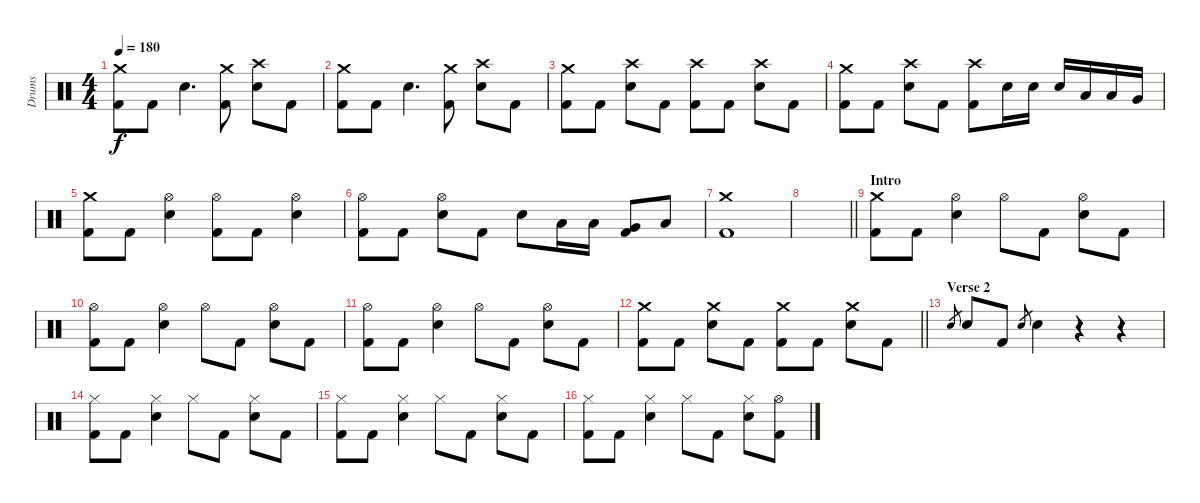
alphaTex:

\track ("Drums" "Drums") {instrument percussion}
\staff {score}
\articulation defaults
\ts (4 4)
\tempo 180
\clef neutral
\ks c
("Crash medium (hit)" "Kick (hit) 2").8{dy f} "Kick (hit) 2".8 "Electric Snare (hit)".4{d} ("Crash medium (hit)" "Kick (hit) 2").8 ("Crash high (hit)" "Electric Snare (hit)").8 "Kick (hit) 2".8 |
("Crash medium (hit)" "Kick (hit) 2").8 "Kick (hit) 2".8 "Electric Snare (hit)".4{d} ("Crash medium (hit)" "Kick (hit) 2").8 ("Crash high (hit)" "Electric Snare (hit)").8 "Kick (hit) 2".8 |
("Crash medium (hit)" "Kick (hit) 2").8 "Kick (hit) 2".8 ("Crash high (hit)" "Electric Snare (hit)").8 "Kick (hit) 2".8 ("Crash high (hit)" "Kick (hit) 2").8 "Kick (hit) 2".8 ("Crash high (hit)" "Electric Snare (hit)").8 "Kick (hit) 2".8 |
("Crash medium (hit)" "Kick (hit) 2").8 "Kick (hit) 2".8 ("Crash high (hit)" "Electric Snare (hit)").8 "Kick (hit) 2".8 ("Crash high (hit)" "Kick (hit) 2").8 "Electric Snare (hit)".16 "Electric Snare (hit)".16 "Electric Snare (hit)".16 "Low Tom (hit)".16 "Low Tom (hit)".16 "Very Low Tom (hit)".16 |
("Crash medium (hit)" "Kick (hit) 2").8 "Kick (hit) 2".8 ("Hi-Hat (open)" "Electric Snare (hit)").4 ("Hi-Hat (open)" "Kick (hit) 2").8 "Kick (hit) 2".8 ("Hi-Hat (open)" "Electric Snare (hit)").4 |
("Hi-Hat (open)" "Kick (hit) 2").8 "Kick (hit) 2".8 ("Hi-Hat (open)" "Electric Snare (hit)").8 "Kick (hit) 2".8 "Electric Snare (hit)".8 "Low Tom (hit)".16 "Low Tom (hit)".16 ("Very Low Tom (hit)" "Kick (hit) 2").8 "Low Floor Tom (hit)".8 |
("Crash medium (hit)" "Kick (hit) 2").1 |
\barLineRight lightlight
|
\section ("" "Intro")
("Crash medium (hit)" "Kick (hit) 2").8 "Kick (hit) 2".8 ("Hi-Hat (open)" "Electric Snare (hit)").4 "Hi-Hat (open)".8 "Kick (hit) 2".8 ("Hi-Hat (open)" "Electric Snare (hit)").8 "Kick (hit) 2".8 |
("Hi-Hat (open)" "Kick (hit) 2").8 "Kick (hit) 2".8 ("Hi-Hat (open)" "Electric Snare (hit)").4 "Hi-Hat (open)".8 "Kick (hit) 2".8 ("Hi-Hat (open)" "Electric Snare (hit)").8 "Kick (hit) 2".8 |
("Hi-Hat (open)" "Kick (hit) 2").8 "Kick (hit) 2".8 ("Hi-Hat (open)" "Electric Snare (hit)").4 "Hi-Hat (open)".8 "Kick (hit) 2".8 ("Hi-Hat (open)" "Electric Snare (hit)").8 "Kick (hit) 2".8 |
\barLineRight lightlight
("Crash medium (hit)" "Kick (hit) 2").8 "Kick (hit) 2".8 ("Crash medium (hit)" "Electric Snare (hit)").8 "Kick (hit) 2".8 ("Crash medium (hit)" "Kick (hit) 2").8 "Kick (hit) 2".8 ("Crash medium (hit)" "Electric Snare (hit)").8 "Kick (hit) 2".8 |
\section ("" "Verse 2")
"Electric Snare (hit)".8{gr} "Electric Snare (hit)".8 "Kick (hit) 2".8 "Electric Snare (hit)".8{gr} "Electric Snare (hit)".4 r.4 r.4 |
("Hi-Hat (closed)" "Kick (hit) 2").8 "Kick (hit) 2".8 ("Hi-Hat (closed)" "Electric Snare (hit)").4 "Hi-Hat (closed)".8 "Kick (hit) 2".8 ("Hi-Hat (closed)" "Electric Snare (hit)").8 "Kick (hit) 2".8 |
("Hi-Hat (closed)" "Kick (hit) 2").8 "Kick (hit) 2".8 ("Hi-Hat (closed)" "Electric Snare (hit)").4 "Hi-Hat (closed)".8 "Kick (hit) 2".8 ("Hi-Hat (closed)" "Electric Snare (hit)").8 "Kick (hit) 2".8 |
("Hi-Hat (closed)" "Kick (hit) 2").8 "Kick (hit) 2".8 ("Hi-Hat (closed)" "Electric Snare (hit)").4 "Hi-Hat (closed)".8 "Kick (hit) 2".8 ("Hi-Hat (closed)" "Electric Snare (hit)").8 ("Hi-Hat (open)" "Kick (hit) 2").8
